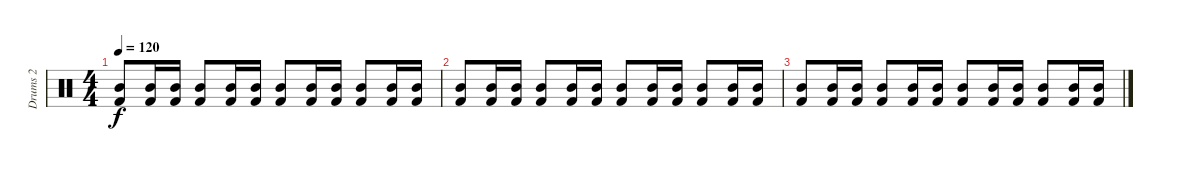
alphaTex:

\track ("Drums 2" "Drums 2") {instrument percussion}
\staff {score}
\articulation defaults
\ts (4 4)
\tempo 120
\clef neutral
\ks c
("Mid Tom (hit)" "Kick (hit) 2").8{dy f} ("Mid Tom (hit)" "Kick (hit) 2").16 ("Mid Tom (hit)" "Kick (hit) 2").16 ("Mid Tom (hit)" "Kick (hit) 2").8 ("Mid Tom (hit)" "Kick (hit) 2").16 ("Mid Tom (hit)" "Kick (hit) 2").16 ("Mid Tom (hit)" "Kick (hit) 2").8 ("Mid Tom (hit)" "Kick (hit) 2").16 ("Mid Tom (hit)" "Kick (hit) 2").16 ("Mid Tom (hit)" "Kick (hit) 2").8 ("Mid Tom (hit)" "Kick (hit) 2").16 ("Mid Tom (hit)" "Kick (hit) 2").16 |
("Mid Tom (hit)" "Kick (hit) 2").8 ("Mid Tom (hit)" "Kick (hit) 2").16 ("Mid Tom (hit)" "Kick (hit) 2").16 ("Mid Tom (hit)" "Kick (hit) 2").8 ("Mid Tom (hit)" "Kick (hit) 2").16 ("Mid Tom (hit)" "Kick (hit) 2").16 ("Mid Tom (hit)" "Kick (hit) 2").8 ("Mid Tom (hit)" "Kick (hit) 2").16 ("Mid Tom (hit)" "Kick (hit) 2").16 ("Mid Tom (hit)" "Kick (hit) 2").8 ("Mid Tom (hit)" "Kick (hit) 2").16 ("Mid Tom (hit)" "Kick (hit) 2").16 |
("Mid Tom (hit)" "Kick (hit) 2").8 ("Mid Tom (hit)" "Kick (hit) 2").16 ("Mid Tom (hit)" "Kick (hit) 2").16 ("Mid Tom (hit)" "Kick (hit) 2").8 ("Mid Tom (hit)" "Kick (hit) 2").16 ("Mid Tom (hit)" "Kick (hit) 2").16 ("Mid Tom (hit)" "Kick (hit) 2").8 ("Mid Tom (hit)" "Kick (hit) 2").16 ("Mid Tom (hit)" "Kick (hit) 2").16 ("Mid Tom (hit)" "Kick (hit) 2").8 ("Mid Tom (hit)" "Kick (hit) 2").16 ("Mid Tom (hit)" "Kick (hit) 2").16
